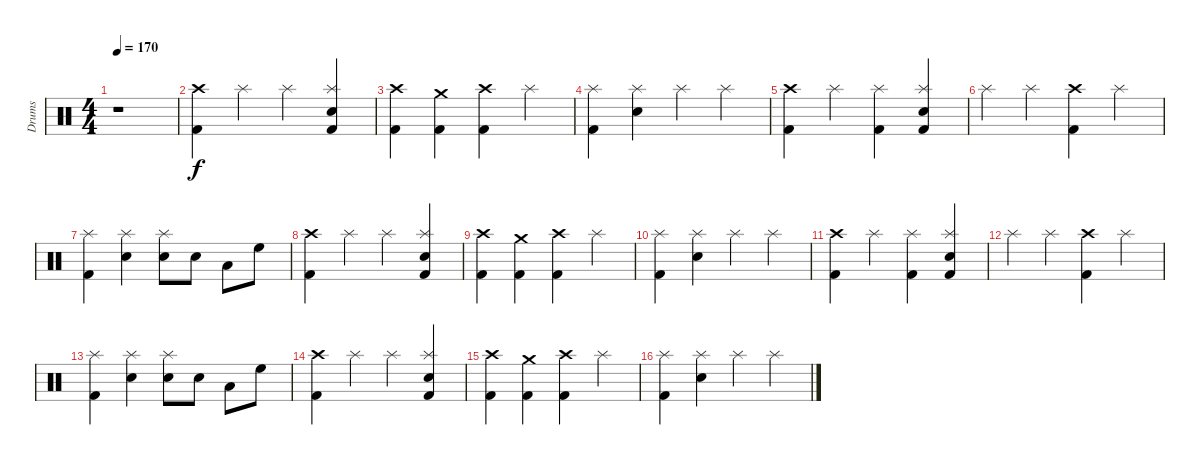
\track ("Drums" "Drums") {instrument percussion}
\staff {score}
\articulation defaults
\ts (4 4)
\tempo 170
\clef neutral
\ks c
r.1{dy f} |
("Kick (hit) 2" "Crash high (hit)").4 "Splash (hit)".4 "Splash (hit)".4 ("Kick (hit) 2" "Snare (hit) 2" "Splash (hit)").4 |
("Kick (hit) 2" "Crash high (hit)").4 ("Kick (hit) 2" "Crash medium (hit)").4 ("Kick (hit) 2" "Crash high (hit)").4 "Splash (hit)".4 |
("Kick (hit) 2" "Splash (hit)").4 ("Snare (hit) 2" "Splash (hit)").4 "Splash (hit)".4 "Splash (hit)".4 |
("Kick (hit) 2" "Crash high (hit)").4 "Splash (hit)".4 ("Kick (hit) 2" "Splash (hit)").4 ("Kick (hit) 2" "Snare (hit) 2" "Splash (hit)").4 |
"Splash (hit)".4 "Splash (hit)".4 ("Kick (hit) 2" "Crash high (hit)").4 "Splash (hit)".4 |
("Kick (hit) 2" "Splash (hit)").4 ("Snare (hit) 2" "Splash (hit)").4 ("Snare (hit) 2" "Splash (hit)").8 "Snare (hit) 2".8 "Low Tom (hit)".8 "High Floor Tom (hit)".8 |
("Kick (hit) 2" "Crash high (hit)").4 "Splash (hit)".4 "Splash (hit)".4 ("Kick (hit) 2" "Snare (hit) 2" "Splash (hit)").4 |
("Kick (hit) 2" "Crash high (hit)").4 ("Kick (hit) 2" "Crash medium (hit)").4 ("Kick (hit) 2" "Crash high (hit)").4 "Splash (hit)".4 |
("Kick (hit) 2" "Splash (hit)").4 ("Snare (hit) 2" "Splash (hit)").4 "Splash (hit)".4 "Splash (hit)".4 |
("Kick (hit) 2" "Crash high (hit)").4 "Splash (hit)".4 ("Kick (hit) 2" "Splash (hit)").4 ("Kick (hit) 2" "Snare (hit) 2" "Splash (hit)").4 |
"Splash (hit)".4 "Splash (hit)".4 ("Kick (hit) 2" "Crash high (hit)").4 "Splash (hit)".4 |
("Kick (hit) 2" "Splash (hit)").4 ("Snare (hit) 2" "Splash (hit)").4 ("Snare (hit) 2" "Splash (hit)").8 "Snare (hit) 2".8 "Low Tom (hit)".8 "High Floor Tom (hit)".8 |
("Kick (hit) 2" "Crash high (hit)").4 "Splash (hit)".4 "Splash (hit)".4 ("Kick (hit) 2" "Snare (hit) 2" "Splash (hit)").4 |
("Kick (hit) 2" "Crash high (hit)").4 ("Kick (hit) 2" "Crash medium (hit)").4 ("Kick (hit) 2" "Crash high (hit)").4 "Splash (hit)".4 |
("Kick (hit) 2" "Splash (hit)").4 ("Snare (hit) 2" "Splash (hit)").4 "Splash (hit)".4 "Splash (hit)".4
